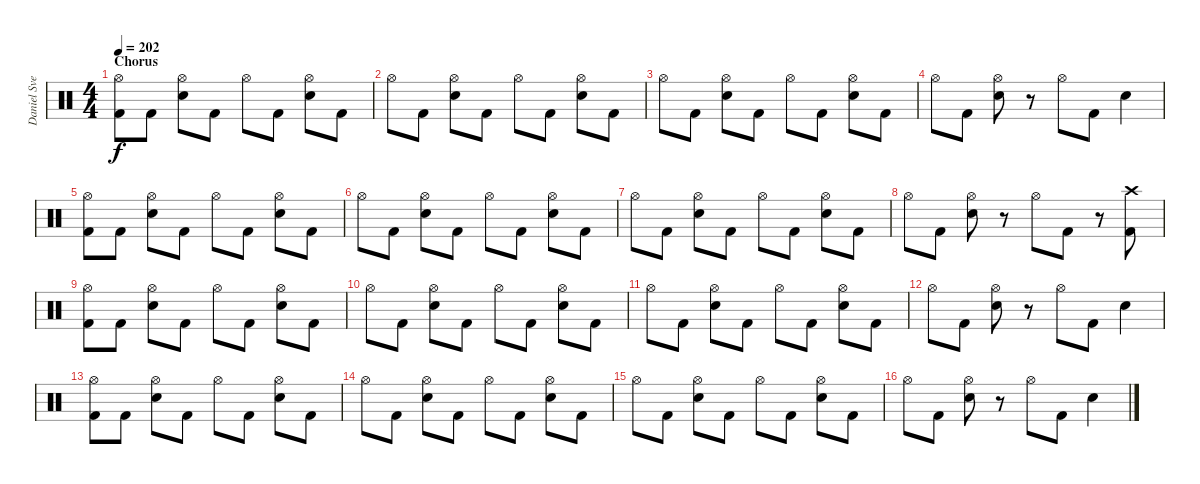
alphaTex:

\track ("Daniel Svensson" "Daniel Sve") {instrument percussion}
\staff {score}
\articulation defaults
\ts (4 4)
\section ("" "Chorus")
\tempo 202
\clef neutral
\ks c
("Hi-Hat (open)" "Kick (hit) 2").8{dy f} "Kick (hit) 2".8 ("Hi-Hat (open)" "Electric Snare (hit)").8 "Kick (hit) 2".8 "Hi-Hat (open)".8 "Kick (hit) 2".8 ("Hi-Hat (open)" "Electric Snare (hit)").8 "Kick (hit) 2".8 |
"Hi-Hat (open)".8 "Kick (hit) 2".8 ("Hi-Hat (open)" "Electric Snare (hit)").8 "Kick (hit) 2".8 "Hi-Hat (open)".8 "Kick (hit) 2".8 ("Hi-Hat (open)" "Electric Snare (hit)").8 "Kick (hit) 2".8 |
"Hi-Hat (open)".8 "Kick (hit) 2".8 ("Hi-Hat (open)" "Electric Snare (hit)").8 "Kick (hit) 2".8 "Hi-Hat (open)".8 "Kick (hit) 2".8 ("Hi-Hat (open)" "Electric Snare (hit)").8 "Kick (hit) 2".8 |
"Hi-Hat (open)".8 "Kick (hit) 2".8 ("Hi-Hat (open)" "Electric Snare (hit)").8 r.8 "Hi-Hat (open)".8 "Kick (hit) 2".8 "Electric Snare (hit)".4 |
("Hi-Hat (open)" "Kick (hit) 2").8 "Kick (hit) 2".8 ("Hi-Hat (open)" "Electric Snare (hit)").8 "Kick (hit) 2".8 "Hi-Hat (open)".8 "Kick (hit) 2".8 ("Hi-Hat (open)" "Electric Snare (hit)").8 "Kick (hit) 2".8 |
"Hi-Hat (open)".8 "Kick (hit) 2".8 ("Hi-Hat (open)" "Electric Snare (hit)").8 "Kick (hit) 2".8 "Hi-Hat (open)".8 "Kick (hit) 2".8 ("Hi-Hat (open)" "Electric Snare (hit)").8 "Kick (hit) 2".8 |
"Hi-Hat (open)".8 "Kick (hit) 2".8 ("Hi-Hat (open)" "Electric Snare (hit)").8 "Kick (hit) 2".8 "Hi-Hat (open)".8 "Kick (hit) 2".8 ("Hi-Hat (open)" "Electric Snare (hit)").8 "Kick (hit) 2".8 |
"Hi-Hat (open)".8 "Kick (hit) 2".8 ("Hi-Hat (open)" "Electric Snare (hit)").8 r.8 "Hi-Hat (open)".8 "Kick (hit) 2".8 r.8 ("Crash high (hit)" "Kick (hit) 2").8 |
("Hi-Hat (open)" "Kick (hit) 2").8 "Kick (hit) 2".8 ("Hi-Hat (open)" "Electric Snare (hit)").8 "Kick (hit) 2".8 "Hi-Hat (open)".8 "Kick (hit) 2".8 ("Hi-Hat (open)" "Electric Snare (hit)").8 "Kick (hit) 2".8 |
"Hi-Hat (open)".8 "Kick (hit) 2".8 ("Hi-Hat (open)" "Electric Snare (hit)").8 "Kick (hit) 2".8 "Hi-Hat (open)".8 "Kick (hit) 2".8 ("Hi-Hat (open)" "Electric Snare (hit)").8 "Kick (hit) 2".8 |
"Hi-Hat (open)".8 "Kick (hit) 2".8 ("Hi-Hat (open)" "Electric Snare (hit)").8 "Kick (hit) 2".8 "Hi-Hat (open)".8 "Kick (hit) 2".8 ("Hi-Hat (open)" "Electric Snare (hit)").8 "Kick (hit) 2".8 |
"Hi-Hat (open)".8 "Kick (hit) 2".8 ("Hi-Hat (open)" "Electric Snare (hit)").8 r.8 "Hi-Hat (open)".8 "Kick (hit) 2".8 "Electric Snare (hit)".4 |
("Hi-Hat (open)" "Kick (hit) 2").8 "Kick (hit) 2".8 ("Hi-Hat (open)" "Electric Snare (hit)").8 "Kick (hit) 2".8 "Hi-Hat (open)".8 "Kick (hit) 2".8 ("Hi-Hat (open)" "Electric Snare (hit)").8 "Kick (hit) 2".8 |
"Hi-Hat (open)".8 "Kick (hit) 2".8 ("Hi-Hat (open)" "Electric Snare (hit)").8 "Kick (hit) 2".8 "Hi-Hat (open)".8 "Kick (hit) 2".8 ("Hi-Hat (open)" "Electric Snare (hit)").8 "Kick (hit) 2".8 |
"Hi-Hat (open)".8 "Kick (hit) 2".8 ("Hi-Hat (open)" "Electric Snare (hit)").8 "Kick (hit) 2".8 "Hi-Hat (open)".8 "Kick (hit) 2".8 ("Hi-Hat (open)" "Electric Snare (hit)").8 "Kick (hit) 2".8 |
"Hi-Hat (open)".8 "Kick (hit) 2".8 ("Hi-Hat (open)" "Electric Snare (hit)").8 r.8 "Hi-Hat (open)".8 "Kick (hit) 2".8 "Electric Snare (hit)".4
